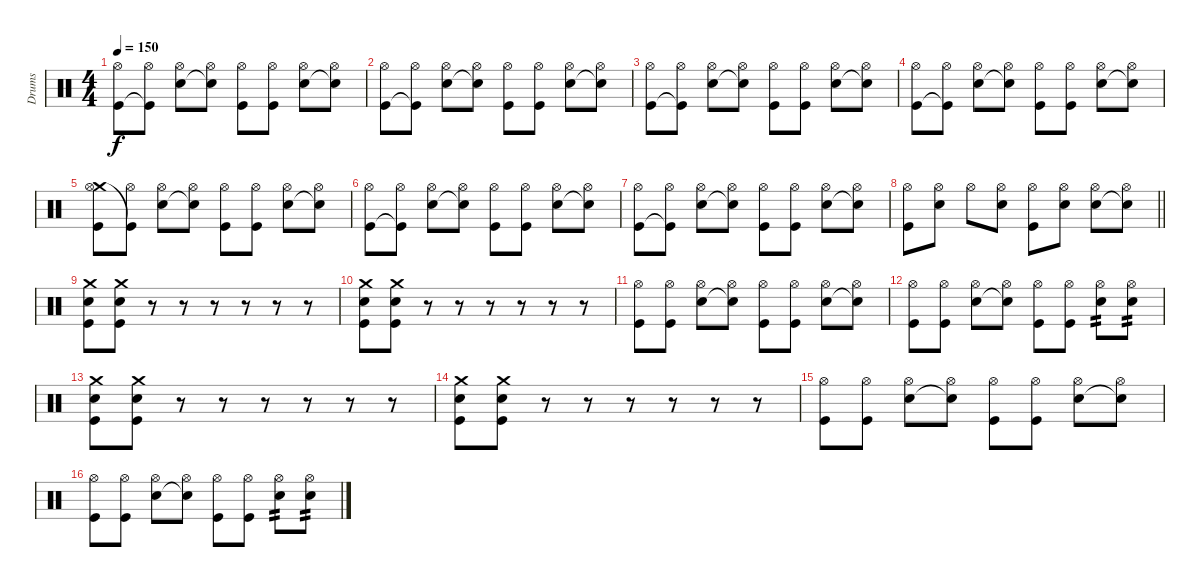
\track ("Drums" "Drums") {instrument percussion}
\staff {score}
\articulation defaults
\ts (4 4)
\tempo 150
\clef neutral
\ks c
("Hi-Hat (open)" "Kick (hit)").8{dy f} ("Hi-Hat (open)" "Kick (hit)"{t}).8 ("Hi-Hat (open)" "Electric Snare (hit)").8 ("Hi-Hat (open)" "Snare (hit)"{t}).8 ("Hi-Hat (open)" "Kick (hit)").8 ("Hi-Hat (open)" "Kick (hit)").8 ("Hi-Hat (open)" "Electric Snare (hit)").8 ("Hi-Hat (open)" "Snare (hit)"{t}).8 |
("Hi-Hat (open)" "Kick (hit)").8 ("Hi-Hat (open)" "Kick (hit)"{t}).8 ("Hi-Hat (open)" "Electric Snare (hit)").8 ("Hi-Hat (open)" "Snare (hit)"{t}).8 ("Hi-Hat (open)" "Kick (hit)").8 ("Hi-Hat (open)" "Kick (hit)").8 ("Hi-Hat (open)" "Electric Snare (hit)").8 ("Hi-Hat (open)" "Snare (hit)"{t}).8 |
("Hi-Hat (open)" "Kick (hit)").8 ("Hi-Hat (open)" "Kick (hit)"{t}).8 ("Hi-Hat (open)" "Electric Snare (hit)").8 ("Hi-Hat (open)" "Snare (hit)"{t}).8 ("Hi-Hat (open)" "Kick (hit)").8 ("Hi-Hat (open)" "Kick (hit)").8 ("Hi-Hat (open)" "Electric Snare (hit)").8 ("Hi-Hat (open)" "Snare (hit)"{t}).8 |
("Hi-Hat (open)" "Kick (hit)").8 ("Hi-Hat (open)" "Kick (hit)"{t}).8 ("Hi-Hat (open)" "Electric Snare (hit)").8 ("Hi-Hat (open)" "Snare (hit)"{t}).8 ("Hi-Hat (open)" "Kick (hit)").8 ("Hi-Hat (open)" "Kick (hit)").8 ("Hi-Hat (open)" "Electric Snare (hit)").8 ("Hi-Hat (open)" "Snare (hit)"{t}).8 |
("Crash medium (hit)" "Hi-Hat (open)" "Kick (hit)").8 ("Hi-Hat (open)" "Kick (hit)"{t}).8 ("Hi-Hat (open)" "Electric Snare (hit)").8 ("Hi-Hat (open)" "Snare (hit)"{t}).8 ("Hi-Hat (open)" "Kick (hit)").8 ("Hi-Hat (open)" "Kick (hit)").8 ("Hi-Hat (open)" "Electric Snare (hit)").8 ("Hi-Hat (open)" "Snare (hit)"{t}).8 |
("Hi-Hat (open)" "Kick (hit)").8 ("Hi-Hat (open)" "Kick (hit)"{t}).8 ("Hi-Hat (open)" "Electric Snare (hit)").8 ("Hi-Hat (open)" "Snare (hit)"{t}).8 ("Hi-Hat (open)" "Kick (hit)").8 ("Hi-Hat (open)" "Kick (hit)").8 ("Hi-Hat (open)" "Electric Snare (hit)").8 ("Hi-Hat (open)" "Snare (hit)"{t}).8 |
("Hi-Hat (open)" "Kick (hit)").8 ("Hi-Hat (open)" "Kick (hit)"{t}).8 ("Hi-Hat (open)" "Electric Snare (hit)").8 ("Hi-Hat (open)" "Snare (hit)"{t}).8 ("Hi-Hat (open)" "Kick (hit)").8 ("Hi-Hat (open)" "Kick (hit)").8 ("Hi-Hat (open)" "Electric Snare (hit)").8 ("Hi-Hat (open)" "Snare (hit)"{t}).8 |
\barLineRight lightlight
("Hi-Hat (open)" "Kick (hit)").8 ("Hi-Hat (open)" "Electric Snare (hit)").8 "Hi-Hat (open)".8 ("Hi-Hat (open)" "Electric Snare (hit)").8 ("Hi-Hat (open)" "Kick (hit)").8 ("Hi-Hat (open)" "Electric Snare (hit)").8 ("Hi-Hat (open)" "Electric Snare (hit)").8 ("Hi-Hat (open)" "Snare (hit)"{t}).8 |
("Crash medium (hit)" "Electric Snare (hit)" "Kick (hit)").8 ("Crash medium (hit)" "Electric Snare (hit)" "Kick (hit)").8 r.8 r.8 r.8 r.8 r.8 r.8 |
("Crash medium (hit)" "Electric Snare (hit)" "Kick (hit)").8 ("Crash medium (hit)" "Electric Snare (hit)" "Kick (hit)").8 r.8 r.8 r.8 r.8 r.8 r.8 |
("Hi-Hat (open)" "Kick (hit)").8 ("Hi-Hat (open)" "Kick (hit)").8 ("Hi-Hat (open)" "Electric Snare (hit)").8 ("Hi-Hat (open)" "Snare (hit)"{t}).8 ("Hi-Hat (open)" "Kick (hit)").8 ("Hi-Hat (open)" "Kick (hit)").8 ("Hi-Hat (open)" "Electric Snare (hit)").8 ("Hi-Hat (open)" "Snare (hit)"{t}).8 |
("Hi-Hat (open)" "Kick (hit)").8 ("Hi-Hat (open)" "Kick (hit)").8 ("Hi-Hat (open)" "Electric Snare (hit)").8 ("Hi-Hat (open)" "Snare (hit)"{t}).8 ("Hi-Hat (open)" "Kick (hit)").8 ("Hi-Hat (open)" "Kick (hit)").8 ("Hi-Hat (open)" "Electric Snare (hit)").8{tp 2} ("Hi-Hat (open)" "Electric Snare (hit)").8{tp 2} |
("Crash medium (hit)" "Electric Snare (hit)" "Kick (hit)").8 ("Crash medium (hit)" "Electric Snare (hit)" "Kick (hit)").8 r.8 r.8 r.8 r.8 r.8 r.8 |
("Crash medium (hit)" "Electric Snare (hit)" "Kick (hit)").8 ("Crash medium (hit)" "Electric Snare (hit)" "Kick (hit)").8 r.8 r.8 r.8 r.8 r.8 r.8 |
("Hi-Hat (open)" "Kick (hit)").8 ("Hi-Hat (open)" "Kick (hit)").8 ("Hi-Hat (open)" "Electric Snare (hit)").8 ("Hi-Hat (open)" "Snare (hit)"{t}).8 ("Hi-Hat (open)" "Kick (hit)").8 ("Hi-Hat (open)" "Kick (hit)").8 ("Hi-Hat (open)" "Electric Snare (hit)").8 ("Hi-Hat (open)" "Snare (hit)"{t}).8 |
("Hi-Hat (open)" "Kick (hit)").8 ("Hi-Hat (open)" "Kick (hit)").8 ("Hi-Hat (open)" "Electric Snare (hit)").8 ("Hi-Hat (open)" "Snare (hit)"{t}).8 ("Hi-Hat (open)" "Kick (hit)").8 ("Hi-Hat (open)" "Kick (hit)").8 ("Hi-Hat (open)" "Electric Snare (hit)").8{tp 2} ("Hi-Hat (open)" "Electric Snare (hit)").8{tp 2}
